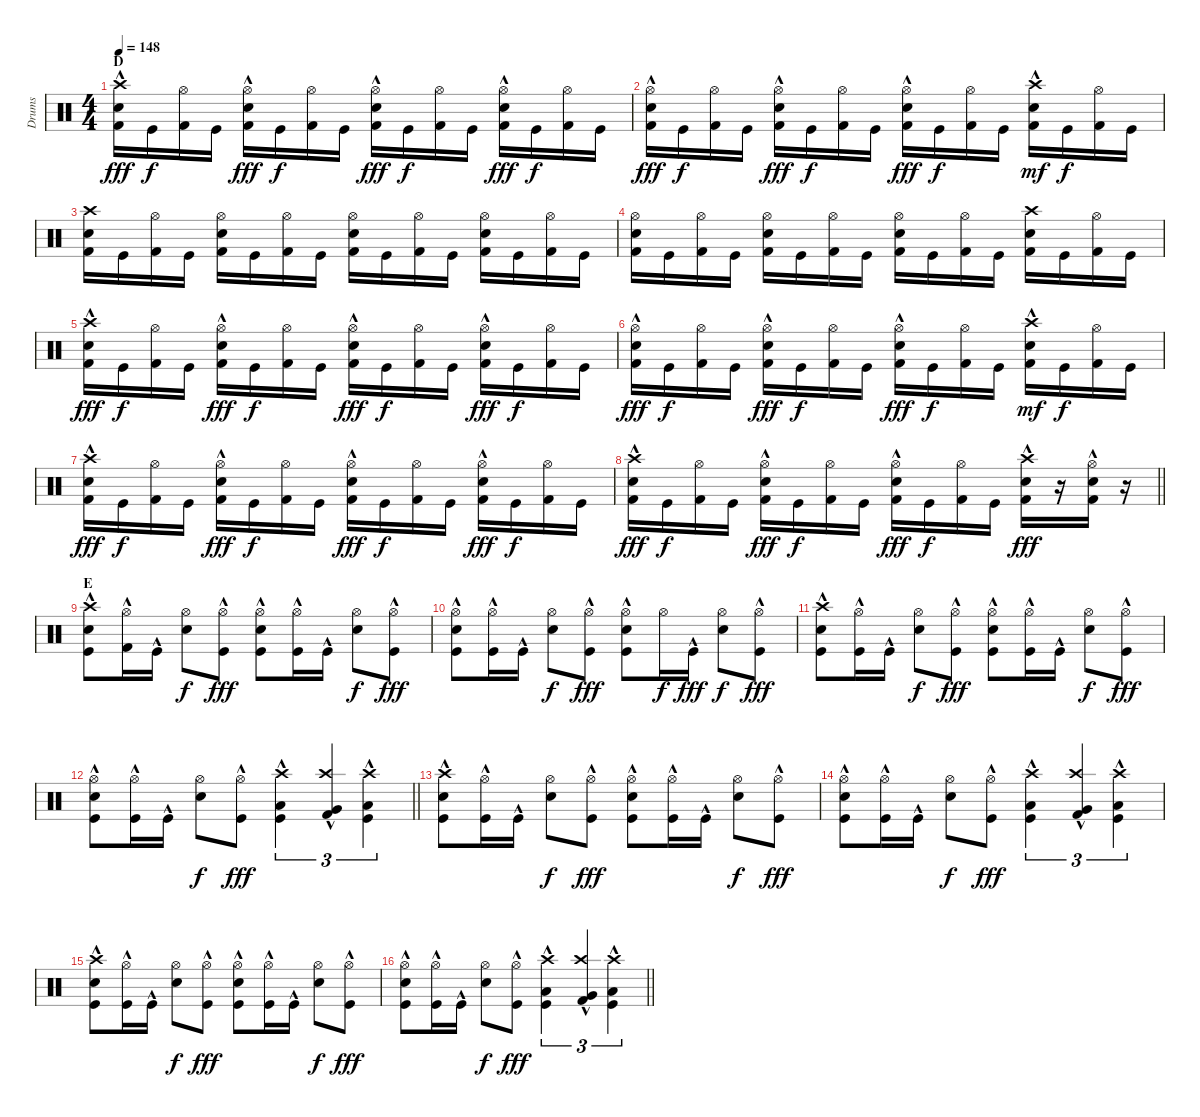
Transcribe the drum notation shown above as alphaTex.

\track ("Drums" "Drums") {instrument percussion}
\staff {score}
\articulation defaults
\ts (4 4)
\section ("" "D")
\tempo 148
\clef neutral
\ks c
("Kick (hit) 2" "Snare (hit) 2"{hac} "Crash high (hit)").16{dy fff} "Kick (hit)".16{dy f} ("Kick (hit) 2" "Hi-Hat (open)").16 "Kick (hit)".16 ("Kick (hit) 2" "Snare (hit) 2"{hac} "Hi-Hat (open)").16{dy fff} "Kick (hit)".16{dy f} ("Kick (hit) 2" "Hi-Hat (open)").16 "Kick (hit)".16 ("Kick (hit) 2" "Snare (hit) 2"{hac} "Hi-Hat (open)").16{dy fff} "Kick (hit)".16{dy f} ("Kick (hit) 2" "Hi-Hat (open)").16 "Kick (hit)".16 ("Kick (hit) 2" "Snare (hit) 2"{hac} "Hi-Hat (open)").16{dy fff} "Kick (hit)".16{dy f} ("Kick (hit) 2" "Hi-Hat (open)").16 "Kick (hit)".16 |
("Kick (hit) 2" "Snare (hit) 2"{hac} "Hi-Hat (open)").16{dy fff} "Kick (hit)".16{dy f} ("Kick (hit) 2" "Hi-Hat (open)").16 "Kick (hit)".16 ("Kick (hit) 2" "Snare (hit) 2"{hac} "Hi-Hat (open)").16{dy fff} "Kick (hit)".16{dy f} ("Kick (hit) 2" "Hi-Hat (open)").16 "Kick (hit)".16 ("Kick (hit) 2" "Snare (hit) 2"{hac} "Hi-Hat (open)").16{dy fff} "Kick (hit)".16{dy f} ("Kick (hit) 2" "Hi-Hat (open)").16 "Kick (hit)".16 ("Kick (hit) 2" "Snare (hit) 2"{hac} "Crash high (hit)").16{dy mf} "Kick (hit)".16{dy f} ("Kick (hit) 2" "Hi-Hat (open)").16 "Kick (hit)".16 |
("Kick (hit) 2" "Snare (hit) 2" "Crash high (hit)").16 "Kick (hit)".16 ("Kick (hit) 2" "Hi-Hat (open)").16 "Kick (hit)".16 ("Kick (hit) 2" "Snare (hit) 2" "Hi-Hat (open)").16 "Kick (hit)".16 ("Kick (hit) 2" "Hi-Hat (open)").16 "Kick (hit)".16 ("Kick (hit) 2" "Snare (hit) 2" "Hi-Hat (open)").16 "Kick (hit)".16 ("Kick (hit) 2" "Hi-Hat (open)").16 "Kick (hit)".16 ("Kick (hit) 2" "Snare (hit) 2" "Hi-Hat (open)").16 "Kick (hit)".16 ("Kick (hit) 2" "Hi-Hat (open)").16 "Kick (hit)".16 |
("Kick (hit) 2" "Snare (hit) 2" "Hi-Hat (open)").16 "Kick (hit)".16 ("Kick (hit) 2" "Hi-Hat (open)").16 "Kick (hit)".16 ("Kick (hit) 2" "Snare (hit) 2" "Hi-Hat (open)").16 "Kick (hit)".16 ("Kick (hit) 2" "Hi-Hat (open)").16 "Kick (hit)".16 ("Kick (hit) 2" "Snare (hit) 2" "Hi-Hat (open)").16 "Kick (hit)".16 ("Kick (hit) 2" "Hi-Hat (open)").16 "Kick (hit)".16 ("Kick (hit) 2" "Snare (hit) 2" "Crash high (hit)").16 "Kick (hit)".16 ("Kick (hit) 2" "Hi-Hat (open)").16 "Kick (hit)".16 |
("Kick (hit) 2" "Snare (hit) 2"{hac} "Crash high (hit)").16{dy fff} "Kick (hit)".16{dy f} ("Kick (hit) 2" "Hi-Hat (open)").16 "Kick (hit)".16 ("Kick (hit) 2" "Snare (hit) 2"{hac} "Hi-Hat (open)").16{dy fff} "Kick (hit)".16{dy f} ("Kick (hit) 2" "Hi-Hat (open)").16 "Kick (hit)".16 ("Kick (hit) 2" "Snare (hit) 2"{hac} "Hi-Hat (open)").16{dy fff} "Kick (hit)".16{dy f} ("Kick (hit) 2" "Hi-Hat (open)").16 "Kick (hit)".16 ("Kick (hit) 2" "Snare (hit) 2"{hac} "Hi-Hat (open)").16{dy fff} "Kick (hit)".16{dy f} ("Kick (hit) 2" "Hi-Hat (open)").16 "Kick (hit)".16 |
("Kick (hit) 2" "Snare (hit) 2"{hac} "Hi-Hat (open)").16{dy fff} "Kick (hit)".16{dy f} ("Kick (hit) 2" "Hi-Hat (open)").16 "Kick (hit)".16 ("Kick (hit) 2" "Snare (hit) 2"{hac} "Hi-Hat (open)").16{dy fff} "Kick (hit)".16{dy f} ("Kick (hit) 2" "Hi-Hat (open)").16 "Kick (hit)".16 ("Kick (hit) 2" "Snare (hit) 2"{hac} "Hi-Hat (open)").16{dy fff} "Kick (hit)".16{dy f} ("Kick (hit) 2" "Hi-Hat (open)").16 "Kick (hit)".16 ("Kick (hit) 2" "Snare (hit) 2"{hac} "Crash high (hit)").16{dy mf} "Kick (hit)".16{dy f} ("Kick (hit) 2" "Hi-Hat (open)").16 "Kick (hit)".16 |
("Kick (hit) 2" "Snare (hit) 2"{hac} "Crash high (hit)").16{dy fff} "Kick (hit)".16{dy f} ("Kick (hit) 2" "Hi-Hat (open)").16 "Kick (hit)".16 ("Kick (hit) 2" "Snare (hit) 2"{hac} "Hi-Hat (open)").16{dy fff} "Kick (hit)".16{dy f} ("Kick (hit) 2" "Hi-Hat (open)").16 "Kick (hit)".16 ("Kick (hit) 2" "Snare (hit) 2"{hac} "Hi-Hat (open)").16{dy fff} "Kick (hit)".16{dy f} ("Kick (hit) 2" "Hi-Hat (open)").16 "Kick (hit)".16 ("Kick (hit) 2" "Snare (hit) 2"{hac} "Hi-Hat (open)").16{dy fff} "Kick (hit)".16{dy f} ("Kick (hit) 2" "Hi-Hat (open)").16 "Kick (hit)".16 |
\barLineRight lightlight
("Kick (hit) 2" "Snare (hit) 2"{hac} "Crash high (hit)").16{dy fff} "Kick (hit)".16{dy f} ("Kick (hit) 2" "Hi-Hat (open)").16 "Kick (hit)".16 ("Kick (hit) 2" "Snare (hit) 2"{hac} "Hi-Hat (open)").16{dy fff} "Kick (hit)".16{dy f} ("Kick (hit) 2" "Hi-Hat (open)").16 "Kick (hit)".16 ("Kick (hit) 2" "Snare (hit) 2"{hac} "Hi-Hat (open)").16{dy fff} "Kick (hit)".16{dy f} ("Kick (hit) 2" "Hi-Hat (open)").16 "Kick (hit)".16 ("Kick (hit) 2" "Snare (hit) 2"{hac} "Crash high (hit)").16{dy fff} r.16 ("Kick (hit) 2" "Snare (hit) 2"{hac} "Hi-Hat (open)").16 r.16 |
\section ("" "E")
("Kick (hit)"{hac} "Snare (hit) 2" "Crash high (hit)").8 ("Kick (hit) 2"{hac} "Hi-Hat (open)").16 "Kick (hit)"{hac}.16 ("Snare (hit) 2" "Hi-Hat (open)").8{dy f} ("Kick (hit)"{hac} "Hi-Hat (open)").8{dy fff} ("Kick (hit)"{hac} "Snare (hit) 2" "Hi-Hat (open)").8 ("Kick (hit)"{hac} "Hi-Hat (open)").16 "Kick (hit)"{hac}.16 ("Snare (hit) 2" "Hi-Hat (open)").8{dy f} ("Kick (hit)"{hac} "Hi-Hat (open)").8{dy fff} |
("Kick (hit)"{hac} "Snare (hit) 2" "Hi-Hat (open)").8 ("Kick (hit)"{hac} "Hi-Hat (open)").16 "Kick (hit)"{hac}.16 ("Snare (hit) 2" "Hi-Hat (open)").8{dy f} ("Kick (hit)"{hac} "Hi-Hat (open)").8{dy fff} ("Kick (hit)"{hac} "Snare (hit) 2" "Hi-Hat (open)").8 "Hi-Hat (open)".16{dy f} "Kick (hit)"{hac}.16{dy fff} ("Snare (hit) 2" "Hi-Hat (open)").8{dy f} ("Kick (hit)"{hac} "Hi-Hat (open)").8{dy fff} |
("Kick (hit)"{hac} "Snare (hit) 2" "Crash high (hit)").8 ("Kick (hit)"{hac} "Hi-Hat (open)").16 "Kick (hit)"{hac}.16 ("Snare (hit) 2" "Hi-Hat (open)").8{dy f} ("Kick (hit)"{hac} "Hi-Hat (open)").8{dy fff} ("Kick (hit)"{hac} "Snare (hit) 2" "Hi-Hat (open)").8 ("Kick (hit)"{hac} "Hi-Hat (open)").16 "Kick (hit)"{hac}.16 ("Snare (hit) 2" "Hi-Hat (open)").8{dy f} ("Kick (hit)"{hac} "Hi-Hat (open)").8{dy fff} |
\barLineRight lightlight
("Kick (hit)"{hac} "Snare (hit) 2" "Hi-Hat (open)").8 ("Kick (hit)"{hac} "Hi-Hat (open)").16 "Kick (hit)"{hac}.16 ("Snare (hit) 2" "Hi-Hat (open)").8{dy f} ("Kick (hit)"{hac} "Hi-Hat (open)").8{dy fff} ("Kick (hit)"{hac} "Crash high (hit)" "Low Tom (hit)").4{tu (3 2)} ("Kick (hit) 2"{hac} "Crash high (hit)" "Very Low Tom (hit)").4{tu (3 2)} ("Kick (hit)"{hac} "Crash high (hit)" "Low Floor Tom (hit)").4{tu (3 2)} |
("Kick (hit)"{hac} "Snare (hit) 2" "Crash high (hit)").8 ("Kick (hit)"{hac} "Hi-Hat (open)").16 "Kick (hit)"{hac}.16 ("Snare (hit) 2" "Hi-Hat (open)").8{dy f} ("Kick (hit)"{hac} "Hi-Hat (open)").8{dy fff} ("Kick (hit)"{hac} "Snare (hit) 2" "Hi-Hat (open)").8 ("Kick (hit)"{hac} "Hi-Hat (open)").16 "Kick (hit)"{hac}.16 ("Snare (hit) 2" "Hi-Hat (open)").8{dy f} ("Kick (hit)"{hac} "Hi-Hat (open)").8{dy fff} |
("Kick (hit)"{hac} "Snare (hit) 2" "Hi-Hat (open)").8 ("Kick (hit)"{hac} "Hi-Hat (open)").16 "Kick (hit)"{hac}.16 ("Snare (hit) 2" "Hi-Hat (open)").8{dy f} ("Kick (hit)"{hac} "Hi-Hat (open)").8{dy fff} ("Kick (hit)"{hac} "Crash high (hit)" "Low Tom (hit)").4{tu (3 2)} ("Kick (hit) 2"{hac} "Crash high (hit)" "Very Low Tom (hit)").4{tu (3 2)} ("Kick (hit)"{hac} "Crash high (hit)" "Low Floor Tom (hit)").4{tu (3 2)} |
("Kick (hit)"{hac} "Snare (hit) 2" "Crash high (hit)").8 ("Kick (hit)"{hac} "Hi-Hat (open)").16 "Kick (hit)"{hac}.16 ("Snare (hit) 2" "Hi-Hat (open)").8{dy f} ("Kick (hit)"{hac} "Hi-Hat (open)").8{dy fff} ("Kick (hit)"{hac} "Snare (hit) 2" "Hi-Hat (open)").8 ("Kick (hit)"{hac} "Hi-Hat (open)").16 "Kick (hit)"{hac}.16 ("Snare (hit) 2" "Hi-Hat (open)").8{dy f} ("Kick (hit)"{hac} "Hi-Hat (open)").8{dy fff} |
\barLineRight lightlight
("Kick (hit)"{hac} "Snare (hit) 2" "Hi-Hat (open)").8 ("Kick (hit)"{hac} "Hi-Hat (open)").16 "Kick (hit)"{hac}.16 ("Snare (hit) 2" "Hi-Hat (open)").8{dy f} ("Kick (hit)"{hac} "Hi-Hat (open)").8{dy fff} ("Kick (hit)"{hac} "Crash high (hit)" "Low Tom (hit)").4{tu (3 2)} ("Kick (hit) 2"{hac} "Crash high (hit)" "Very Low Tom (hit)").4{tu (3 2)} ("Kick (hit)"{hac} "Crash high (hit)" "Low Floor Tom (hit)").4{tu (3 2)}
